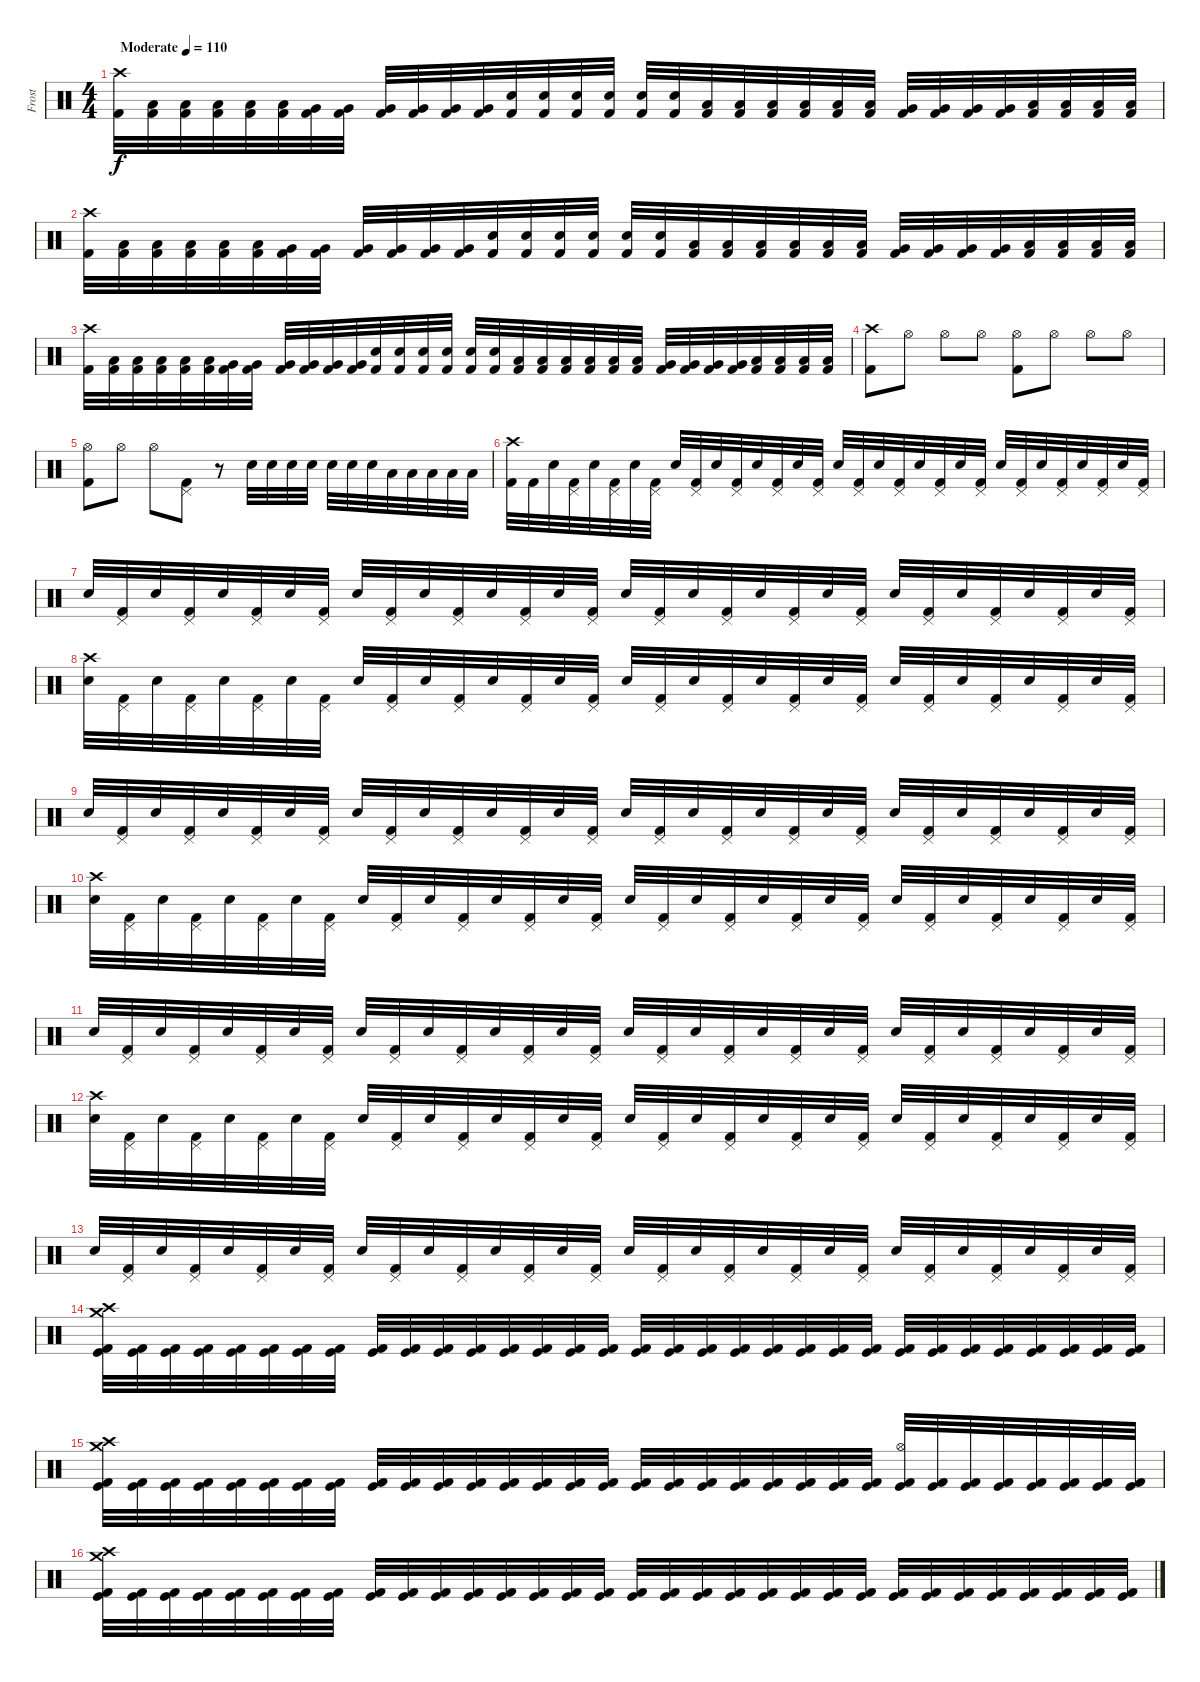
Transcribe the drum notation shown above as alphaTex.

\track ("Frost" "Frost") {instrument percussion}
\staff {score}
\articulation defaults
\ts (4 4)
\tempo (110 "Moderate")
\clef neutral
\ks c
("Crash high (hit)" "Kick (hit) 2").32{dy f} ("Low Tom (hit)" "Kick (hit) 2").32 ("Low Tom (hit)" "Kick (hit) 2").32 ("Low Tom (hit)" "Kick (hit) 2").32 ("Low Tom (hit)" "Kick (hit) 2").32 ("Low Tom (hit)" "Kick (hit) 2").32 ("Very Low Tom (hit)" "Kick (hit) 2").32 ("Very Low Tom (hit)" "Kick (hit) 2").32 ("Very Low Tom (hit)" "Kick (hit) 2").32 ("Very Low Tom (hit)" "Kick (hit) 2").32 ("Very Low Tom (hit)" "Kick (hit) 2").32 ("Very Low Tom (hit)" "Kick (hit) 2").32 ("Snare (hit) 2" "Kick (hit) 2").32 ("Snare (hit) 2" "Kick (hit) 2").32 ("Snare (hit) 2" "Kick (hit) 2").32 ("Snare (hit) 2" "Kick (hit) 2").32 ("Snare (hit) 2" "Kick (hit) 2").32 ("Snare (hit) 2" "Kick (hit) 2").32 ("Low Tom (hit)" "Kick (hit) 2").32 ("Low Tom (hit)" "Kick (hit) 2").32 ("Low Tom (hit)" "Kick (hit) 2").32 ("Low Tom (hit)" "Kick (hit) 2").32 ("Low Tom (hit)" "Kick (hit) 2").32 ("Low Tom (hit)" "Kick (hit) 2").32 ("Very Low Tom (hit)" "Kick (hit) 2").32 ("Very Low Tom (hit)" "Kick (hit) 2").32 ("Very Low Tom (hit)" "Kick (hit) 2").32 ("Very Low Tom (hit)" "Kick (hit) 2").32 ("Low Floor Tom (hit)" "Kick (hit) 2").32 ("Low Floor Tom (hit)" "Kick (hit) 2").32 ("Low Floor Tom (hit)" "Kick (hit) 2").32 ("Low Floor Tom (hit)" "Kick (hit) 2").32 |
("Crash high (hit)" "Kick (hit) 2").32 ("Low Tom (hit)" "Kick (hit) 2").32 ("Low Tom (hit)" "Kick (hit) 2").32 ("Low Tom (hit)" "Kick (hit) 2").32 ("Low Tom (hit)" "Kick (hit) 2").32 ("Low Tom (hit)" "Kick (hit) 2").32 ("Very Low Tom (hit)" "Kick (hit) 2").32 ("Very Low Tom (hit)" "Kick (hit) 2").32 ("Very Low Tom (hit)" "Kick (hit) 2").32 ("Very Low Tom (hit)" "Kick (hit) 2").32 ("Very Low Tom (hit)" "Kick (hit) 2").32 ("Very Low Tom (hit)" "Kick (hit) 2").32 ("Snare (hit) 2" "Kick (hit) 2").32 ("Snare (hit) 2" "Kick (hit) 2").32 ("Snare (hit) 2" "Kick (hit) 2").32 ("Snare (hit) 2" "Kick (hit) 2").32 ("Snare (hit) 2" "Kick (hit) 2").32 ("Snare (hit) 2" "Kick (hit) 2").32 ("Low Tom (hit)" "Kick (hit) 2").32 ("Low Tom (hit)" "Kick (hit) 2").32 ("Low Tom (hit)" "Kick (hit) 2").32 ("Low Tom (hit)" "Kick (hit) 2").32 ("Low Tom (hit)" "Kick (hit) 2").32 ("Low Tom (hit)" "Kick (hit) 2").32 ("Very Low Tom (hit)" "Kick (hit) 2").32 ("Very Low Tom (hit)" "Kick (hit) 2").32 ("Very Low Tom (hit)" "Kick (hit) 2").32 ("Very Low Tom (hit)" "Kick (hit) 2").32 ("Low Floor Tom (hit)" "Kick (hit) 2").32 ("Low Floor Tom (hit)" "Kick (hit) 2").32 ("Low Floor Tom (hit)" "Kick (hit) 2").32 ("Low Floor Tom (hit)" "Kick (hit) 2").32 |
("Crash high (hit)" "Kick (hit) 2").32 ("Low Tom (hit)" "Kick (hit) 2").32 ("Low Tom (hit)" "Kick (hit) 2").32 ("Low Tom (hit)" "Kick (hit) 2").32 ("Low Tom (hit)" "Kick (hit) 2").32 ("Low Tom (hit)" "Kick (hit) 2").32 ("Very Low Tom (hit)" "Kick (hit) 2").32 ("Very Low Tom (hit)" "Kick (hit) 2").32 ("Very Low Tom (hit)" "Kick (hit) 2").32 ("Very Low Tom (hit)" "Kick (hit) 2").32 ("Very Low Tom (hit)" "Kick (hit) 2").32 ("Very Low Tom (hit)" "Kick (hit) 2").32 ("Snare (hit) 2" "Kick (hit) 2").32 ("Snare (hit) 2" "Kick (hit) 2").32 ("Snare (hit) 2" "Kick (hit) 2").32 ("Snare (hit) 2" "Kick (hit) 2").32 ("Snare (hit) 2" "Kick (hit) 2").32 ("Snare (hit) 2" "Kick (hit) 2").32 ("Low Tom (hit)" "Kick (hit) 2").32 ("Low Tom (hit)" "Kick (hit) 2").32 ("Low Tom (hit)" "Kick (hit) 2").32 ("Low Tom (hit)" "Kick (hit) 2").32 ("Low Tom (hit)" "Kick (hit) 2").32 ("Low Tom (hit)" "Kick (hit) 2").32 ("Very Low Tom (hit)" "Kick (hit) 2").32 ("Very Low Tom (hit)" "Kick (hit) 2").32 ("Very Low Tom (hit)" "Kick (hit) 2").32 ("Very Low Tom (hit)" "Kick (hit) 2").32 ("Low Floor Tom (hit)" "Kick (hit) 2").32 ("Low Floor Tom (hit)" "Kick (hit) 2").32 ("Low Floor Tom (hit)" "Kick (hit) 2").32 ("Low Floor Tom (hit)" "Kick (hit) 2").32 |
("Crash high (hit)" "Kick (hit) 2").8 "Hi-Hat (open)".8 "Hi-Hat (open)".8 "Hi-Hat (open)".8 ("Hi-Hat (open)" "Kick (hit) 2").8 "Hi-Hat (open)".8 "Hi-Hat (open)".8 "Hi-Hat (open)".8 |
("Hi-Hat (open)" "Kick (hit) 2").8 "Hi-Hat (open)".8 "Hi-Hat (open)".8 ("Pedal Hi-Hat (hit)" "Kick (hit) 2").8 r.8 "Snare (hit) 2".32 "Snare (hit) 2".32 "Snare (hit) 2".32 "Snare (hit) 2".32 "Snare (hit) 2".32 "Snare (hit) 2".32 "Snare (hit) 2".32 "Low Tom (hit)".32 "Low Tom (hit)".32 "Low Tom (hit)".32 "Low Tom (hit)".32 "Low Tom (hit)".32 |
("Crash high (hit)" "Kick (hit) 2").32 "Kick (hit) 2".32 "Snare (hit) 2".32 ("Pedal Hi-Hat (hit)" "Kick (hit) 2").32 "Snare (hit) 2".32 ("Pedal Hi-Hat (hit)" "Kick (hit) 2").32 "Snare (hit) 2".32 ("Pedal Hi-Hat (hit)" "Kick (hit) 2").32 "Snare (hit) 2".32 ("Pedal Hi-Hat (hit)" "Kick (hit) 2").32 "Snare (hit) 2".32 ("Pedal Hi-Hat (hit)" "Kick (hit) 2").32 "Snare (hit) 2".32 ("Pedal Hi-Hat (hit)" "Kick (hit) 2").32 "Snare (hit) 2".32 ("Pedal Hi-Hat (hit)" "Kick (hit) 2").32 "Snare (hit) 2".32 ("Pedal Hi-Hat (hit)" "Kick (hit) 2").32 "Snare (hit) 2".32 ("Pedal Hi-Hat (hit)" "Kick (hit) 2").32 "Snare (hit) 2".32 ("Pedal Hi-Hat (hit)" "Kick (hit) 2").32 "Snare (hit) 2".32 ("Pedal Hi-Hat (hit)" "Kick (hit) 2").32 "Snare (hit) 2".32 ("Pedal Hi-Hat (hit)" "Kick (hit) 2").32 "Snare (hit) 2".32 ("Pedal Hi-Hat (hit)" "Kick (hit) 2").32 "Snare (hit) 2".32 ("Pedal Hi-Hat (hit)" "Kick (hit) 2").32 "Snare (hit) 2".32 ("Pedal Hi-Hat (hit)" "Kick (hit) 2").32 |
"Snare (hit) 2".32 ("Pedal Hi-Hat (hit)" "Kick (hit) 2").32 "Snare (hit) 2".32 ("Pedal Hi-Hat (hit)" "Kick (hit) 2").32 "Snare (hit) 2".32 ("Pedal Hi-Hat (hit)" "Kick (hit) 2").32 "Snare (hit) 2".32 ("Pedal Hi-Hat (hit)" "Kick (hit) 2").32 "Snare (hit) 2".32 ("Pedal Hi-Hat (hit)" "Kick (hit) 2").32 "Snare (hit) 2".32 ("Pedal Hi-Hat (hit)" "Kick (hit) 2").32 "Snare (hit) 2".32 ("Pedal Hi-Hat (hit)" "Kick (hit) 2").32 "Snare (hit) 2".32 ("Pedal Hi-Hat (hit)" "Kick (hit) 2").32 "Snare (hit) 2".32 ("Pedal Hi-Hat (hit)" "Kick (hit) 2").32 "Snare (hit) 2".32 ("Pedal Hi-Hat (hit)" "Kick (hit) 2").32 "Snare (hit) 2".32 ("Pedal Hi-Hat (hit)" "Kick (hit) 2").32 "Snare (hit) 2".32 ("Pedal Hi-Hat (hit)" "Kick (hit) 2").32 "Snare (hit) 2".32 ("Pedal Hi-Hat (hit)" "Kick (hit) 2").32 "Snare (hit) 2".32 ("Pedal Hi-Hat (hit)" "Kick (hit) 2").32 "Snare (hit) 2".32 ("Pedal Hi-Hat (hit)" "Kick (hit) 2").32 "Snare (hit) 2".32 ("Pedal Hi-Hat (hit)" "Kick (hit) 2").32 |
("Crash high (hit)" "Snare (hit) 2").32 ("Pedal Hi-Hat (hit)" "Kick (hit) 2").32 "Snare (hit) 2".32 ("Pedal Hi-Hat (hit)" "Kick (hit) 2").32 "Snare (hit) 2".32 ("Pedal Hi-Hat (hit)" "Kick (hit) 2").32 "Snare (hit) 2".32 ("Pedal Hi-Hat (hit)" "Kick (hit) 2").32 "Snare (hit) 2".32 ("Pedal Hi-Hat (hit)" "Kick (hit) 2").32 "Snare (hit) 2".32 ("Pedal Hi-Hat (hit)" "Kick (hit) 2").32 "Snare (hit) 2".32 ("Pedal Hi-Hat (hit)" "Kick (hit) 2").32 "Snare (hit) 2".32 ("Pedal Hi-Hat (hit)" "Kick (hit) 2").32 "Snare (hit) 2".32 ("Pedal Hi-Hat (hit)" "Kick (hit) 2").32 "Snare (hit) 2".32 ("Pedal Hi-Hat (hit)" "Kick (hit) 2").32 "Snare (hit) 2".32 ("Pedal Hi-Hat (hit)" "Kick (hit) 2").32 "Snare (hit) 2".32 ("Pedal Hi-Hat (hit)" "Kick (hit) 2").32 "Snare (hit) 2".32 ("Pedal Hi-Hat (hit)" "Kick (hit) 2").32 "Snare (hit) 2".32 ("Pedal Hi-Hat (hit)" "Kick (hit) 2").32 "Snare (hit) 2".32 ("Pedal Hi-Hat (hit)" "Kick (hit) 2").32 "Snare (hit) 2".32 ("Pedal Hi-Hat (hit)" "Kick (hit) 2").32 |
"Snare (hit) 2".32 ("Pedal Hi-Hat (hit)" "Kick (hit) 2").32 "Snare (hit) 2".32 ("Pedal Hi-Hat (hit)" "Kick (hit) 2").32 "Snare (hit) 2".32 ("Pedal Hi-Hat (hit)" "Kick (hit) 2").32 "Snare (hit) 2".32 ("Pedal Hi-Hat (hit)" "Kick (hit) 2").32 "Snare (hit) 2".32 ("Pedal Hi-Hat (hit)" "Kick (hit) 2").32 "Snare (hit) 2".32 ("Pedal Hi-Hat (hit)" "Kick (hit) 2").32 "Snare (hit) 2".32 ("Pedal Hi-Hat (hit)" "Kick (hit) 2").32 "Snare (hit) 2".32 ("Pedal Hi-Hat (hit)" "Kick (hit) 2").32 "Snare (hit) 2".32 ("Pedal Hi-Hat (hit)" "Kick (hit) 2").32 "Snare (hit) 2".32 ("Pedal Hi-Hat (hit)" "Kick (hit) 2").32 "Snare (hit) 2".32 ("Pedal Hi-Hat (hit)" "Kick (hit) 2").32 "Snare (hit) 2".32 ("Pedal Hi-Hat (hit)" "Kick (hit) 2").32 "Snare (hit) 2".32 ("Pedal Hi-Hat (hit)" "Kick (hit) 2").32 "Snare (hit) 2".32 ("Pedal Hi-Hat (hit)" "Kick (hit) 2").32 "Snare (hit) 2".32 ("Pedal Hi-Hat (hit)" "Kick (hit) 2").32 "Snare (hit) 2".32 ("Pedal Hi-Hat (hit)" "Kick (hit) 2").32 |
("Crash high (hit)" "Snare (hit) 2").32 ("Pedal Hi-Hat (hit)" "Kick (hit) 2").32 "Snare (hit) 2".32 ("Pedal Hi-Hat (hit)" "Kick (hit) 2").32 "Snare (hit) 2".32 ("Pedal Hi-Hat (hit)" "Kick (hit) 2").32 "Snare (hit) 2".32 ("Pedal Hi-Hat (hit)" "Kick (hit) 2").32 "Snare (hit) 2".32 ("Pedal Hi-Hat (hit)" "Kick (hit) 2").32 "Snare (hit) 2".32 ("Pedal Hi-Hat (hit)" "Kick (hit) 2").32 "Snare (hit) 2".32 ("Pedal Hi-Hat (hit)" "Kick (hit) 2").32 "Snare (hit) 2".32 ("Pedal Hi-Hat (hit)" "Kick (hit) 2").32 "Snare (hit) 2".32 ("Pedal Hi-Hat (hit)" "Kick (hit) 2").32 "Snare (hit) 2".32 ("Pedal Hi-Hat (hit)" "Kick (hit) 2").32 "Snare (hit) 2".32 ("Pedal Hi-Hat (hit)" "Kick (hit) 2").32 "Snare (hit) 2".32 ("Pedal Hi-Hat (hit)" "Kick (hit) 2").32 "Snare (hit) 2".32 ("Pedal Hi-Hat (hit)" "Kick (hit) 2").32 "Snare (hit) 2".32 ("Pedal Hi-Hat (hit)" "Kick (hit) 2").32 "Snare (hit) 2".32 ("Pedal Hi-Hat (hit)" "Kick (hit) 2").32 "Snare (hit) 2".32 ("Pedal Hi-Hat (hit)" "Kick (hit) 2").32 |
"Snare (hit) 2".32 ("Pedal Hi-Hat (hit)" "Kick (hit) 2").32 "Snare (hit) 2".32 ("Pedal Hi-Hat (hit)" "Kick (hit) 2").32 "Snare (hit) 2".32 ("Pedal Hi-Hat (hit)" "Kick (hit) 2").32 "Snare (hit) 2".32 ("Pedal Hi-Hat (hit)" "Kick (hit) 2").32 "Snare (hit) 2".32 ("Pedal Hi-Hat (hit)" "Kick (hit) 2").32 "Snare (hit) 2".32 ("Pedal Hi-Hat (hit)" "Kick (hit) 2").32 "Snare (hit) 2".32 ("Pedal Hi-Hat (hit)" "Kick (hit) 2").32 "Snare (hit) 2".32 ("Pedal Hi-Hat (hit)" "Kick (hit) 2").32 "Snare (hit) 2".32 ("Pedal Hi-Hat (hit)" "Kick (hit) 2").32 "Snare (hit) 2".32 ("Pedal Hi-Hat (hit)" "Kick (hit) 2").32 "Snare (hit) 2".32 ("Pedal Hi-Hat (hit)" "Kick (hit) 2").32 "Snare (hit) 2".32 ("Pedal Hi-Hat (hit)" "Kick (hit) 2").32 "Snare (hit) 2".32 ("Pedal Hi-Hat (hit)" "Kick (hit) 2").32 "Snare (hit) 2".32 ("Pedal Hi-Hat (hit)" "Kick (hit) 2").32 "Snare (hit) 2".32 ("Pedal Hi-Hat (hit)" "Kick (hit) 2").32 "Snare (hit) 2".32 ("Pedal Hi-Hat (hit)" "Kick (hit) 2").32 |
("Crash high (hit)" "Snare (hit) 2").32 ("Pedal Hi-Hat (hit)" "Kick (hit) 2").32 "Snare (hit) 2".32 ("Pedal Hi-Hat (hit)" "Kick (hit) 2").32 "Snare (hit) 2".32 ("Pedal Hi-Hat (hit)" "Kick (hit) 2").32 "Snare (hit) 2".32 ("Pedal Hi-Hat (hit)" "Kick (hit) 2").32 "Snare (hit) 2".32 ("Pedal Hi-Hat (hit)" "Kick (hit) 2").32 "Snare (hit) 2".32 ("Pedal Hi-Hat (hit)" "Kick (hit) 2").32 "Snare (hit) 2".32 ("Pedal Hi-Hat (hit)" "Kick (hit) 2").32 "Snare (hit) 2".32 ("Pedal Hi-Hat (hit)" "Kick (hit) 2").32 "Snare (hit) 2".32 ("Pedal Hi-Hat (hit)" "Kick (hit) 2").32 "Snare (hit) 2".32 ("Pedal Hi-Hat (hit)" "Kick (hit) 2").32 "Snare (hit) 2".32 ("Pedal Hi-Hat (hit)" "Kick (hit) 2").32 "Snare (hit) 2".32 ("Pedal Hi-Hat (hit)" "Kick (hit) 2").32 "Snare (hit) 2".32 ("Pedal Hi-Hat (hit)" "Kick (hit) 2").32 "Snare (hit) 2".32 ("Pedal Hi-Hat (hit)" "Kick (hit) 2").32 "Snare (hit) 2".32 ("Pedal Hi-Hat (hit)" "Kick (hit) 2").32 "Snare (hit) 2".32 ("Pedal Hi-Hat (hit)" "Kick (hit) 2").32 |
"Snare (hit) 2".32 ("Pedal Hi-Hat (hit)" "Kick (hit) 2").32 "Snare (hit) 2".32 ("Pedal Hi-Hat (hit)" "Kick (hit) 2").32 "Snare (hit) 2".32 ("Pedal Hi-Hat (hit)" "Kick (hit) 2").32 "Snare (hit) 2".32 ("Pedal Hi-Hat (hit)" "Kick (hit) 2").32 "Snare (hit) 2".32 ("Pedal Hi-Hat (hit)" "Kick (hit) 2").32 "Snare (hit) 2".32 ("Pedal Hi-Hat (hit)" "Kick (hit) 2").32 "Snare (hit) 2".32 ("Pedal Hi-Hat (hit)" "Kick (hit) 2").32 "Snare (hit) 2".32 ("Pedal Hi-Hat (hit)" "Kick (hit) 2").32 "Snare (hit) 2".32 ("Pedal Hi-Hat (hit)" "Kick (hit) 2").32 "Snare (hit) 2".32 ("Pedal Hi-Hat (hit)" "Kick (hit) 2").32 "Snare (hit) 2".32 ("Pedal Hi-Hat (hit)" "Kick (hit) 2").32 "Snare (hit) 2".32 ("Pedal Hi-Hat (hit)" "Kick (hit) 2").32 "Snare (hit) 2".32 ("Pedal Hi-Hat (hit)" "Kick (hit) 2").32 "Snare (hit) 2".32 ("Pedal Hi-Hat (hit)" "Kick (hit) 2").32 "Snare (hit) 2".32 ("Pedal Hi-Hat (hit)" "Kick (hit) 2").32 "Snare (hit) 2".32 ("Pedal Hi-Hat (hit)" "Kick (hit) 2").32 |
("Crash medium (hit)" "Crash high (hit)" "Kick (hit)" "Kick (hit) 2").32 ("Kick (hit)" "Kick (hit) 2").32 ("Kick (hit)" "Kick (hit) 2").32 ("Kick (hit)" "Kick (hit) 2").32 ("Kick (hit)" "Kick (hit) 2").32 ("Kick (hit)" "Kick (hit) 2").32 ("Kick (hit)" "Kick (hit) 2").32 ("Kick (hit)" "Kick (hit) 2").32 ("Kick (hit)" "Kick (hit) 2").32 ("Kick (hit)" "Kick (hit) 2").32 ("Kick (hit)" "Kick (hit) 2").32 ("Kick (hit)" "Kick (hit) 2").32 ("Kick (hit)" "Kick (hit) 2").32 ("Kick (hit)" "Kick (hit) 2").32 ("Kick (hit)" "Kick (hit) 2").32 ("Kick (hit)" "Kick (hit) 2").32 ("Kick (hit)" "Kick (hit) 2").32 ("Kick (hit)" "Kick (hit) 2").32 ("Kick (hit)" "Kick (hit) 2").32 ("Kick (hit)" "Kick (hit) 2").32 ("Kick (hit)" "Kick (hit) 2").32 ("Kick (hit)" "Kick (hit) 2").32 ("Kick (hit)" "Kick (hit) 2").32 ("Kick (hit)" "Kick (hit) 2").32 ("Kick (hit)" "Kick (hit) 2").32 ("Kick (hit)" "Kick (hit) 2").32 ("Kick (hit)" "Kick (hit) 2").32 ("Kick (hit)" "Kick (hit) 2").32 ("Kick (hit)" "Kick (hit) 2").32 ("Kick (hit)" "Kick (hit) 2").32 ("Kick (hit)" "Kick (hit) 2").32 ("Kick (hit)" "Kick (hit) 2").32 |
("Crash medium (hit)" "Crash high (hit)" "Kick (hit)" "Kick (hit) 2").32 ("Kick (hit)" "Kick (hit) 2").32 ("Kick (hit)" "Kick (hit) 2").32 ("Kick (hit)" "Kick (hit) 2").32 ("Kick (hit)" "Kick (hit) 2").32 ("Kick (hit)" "Kick (hit) 2").32 ("Kick (hit)" "Kick (hit) 2").32 ("Kick (hit)" "Kick (hit) 2").32 ("Kick (hit)" "Kick (hit) 2").32 ("Kick (hit)" "Kick (hit) 2").32 ("Kick (hit)" "Kick (hit) 2").32 ("Kick (hit)" "Kick (hit) 2").32 ("Kick (hit)" "Kick (hit) 2").32 ("Kick (hit)" "Kick (hit) 2").32 ("Kick (hit)" "Kick (hit) 2").32 ("Kick (hit)" "Kick (hit) 2").32 ("Kick (hit)" "Kick (hit) 2").32 ("Kick (hit)" "Kick (hit) 2").32 ("Kick (hit)" "Kick (hit) 2").32 ("Kick (hit)" "Kick (hit) 2").32 ("Kick (hit)" "Kick (hit) 2").32 ("Kick (hit)" "Kick (hit) 2").32 ("Kick (hit)" "Kick (hit) 2").32 ("Kick (hit)" "Kick (hit) 2").32 ("Hi-Hat (open)" "Kick (hit)" "Kick (hit) 2").32 ("Kick (hit)" "Kick (hit) 2").32 ("Kick (hit)" "Kick (hit) 2").32 ("Kick (hit)" "Kick (hit) 2").32 ("Kick (hit)" "Kick (hit) 2").32 ("Kick (hit)" "Kick (hit) 2").32 ("Kick (hit)" "Kick (hit) 2").32 ("Kick (hit)" "Kick (hit) 2").32 |
("Crash medium (hit)" "Crash high (hit)" "Kick (hit)" "Kick (hit) 2").32 ("Kick (hit)" "Kick (hit) 2").32 ("Kick (hit)" "Kick (hit) 2").32 ("Kick (hit)" "Kick (hit) 2").32 ("Kick (hit)" "Kick (hit) 2").32 ("Kick (hit)" "Kick (hit) 2").32 ("Kick (hit)" "Kick (hit) 2").32 ("Kick (hit)" "Kick (hit) 2").32 ("Kick (hit)" "Kick (hit) 2").32 ("Kick (hit)" "Kick (hit) 2").32 ("Kick (hit)" "Kick (hit) 2").32 ("Kick (hit)" "Kick (hit) 2").32 ("Kick (hit)" "Kick (hit) 2").32 ("Kick (hit)" "Kick (hit) 2").32 ("Kick (hit)" "Kick (hit) 2").32 ("Kick (hit)" "Kick (hit) 2").32 ("Kick (hit)" "Kick (hit) 2").32 ("Kick (hit)" "Kick (hit) 2").32 ("Kick (hit)" "Kick (hit) 2").32 ("Kick (hit)" "Kick (hit) 2").32 ("Kick (hit)" "Kick (hit) 2").32 ("Kick (hit)" "Kick (hit) 2").32 ("Kick (hit)" "Kick (hit) 2").32 ("Kick (hit)" "Kick (hit) 2").32 ("Kick (hit)" "Kick (hit) 2").32 ("Kick (hit)" "Kick (hit) 2").32 ("Kick (hit)" "Kick (hit) 2").32 ("Kick (hit)" "Kick (hit) 2").32 ("Kick (hit)" "Kick (hit) 2").32 ("Kick (hit)" "Kick (hit) 2").32 ("Kick (hit)" "Kick (hit) 2").32 ("Kick (hit)" "Kick (hit) 2").32
